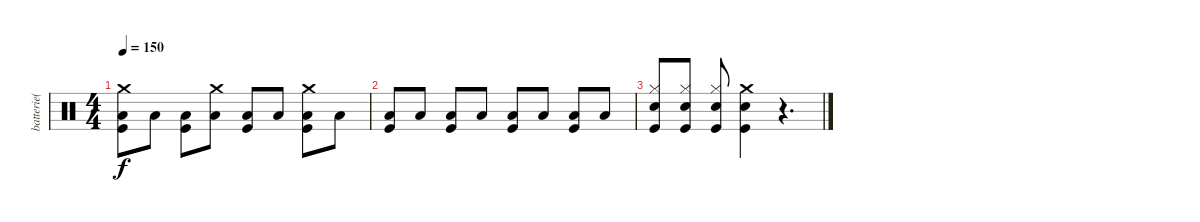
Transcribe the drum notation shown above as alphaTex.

\track ("batterie(  Mark Cain )" "batterie( ") {instrument percussion}
\staff {score}
\articulation defaults
\ts (4 4)
\tempo 150
\clef neutral
\ks c
("Crash medium (hit)" "Low Floor Tom (hit)" "Kick (hit)").8{dy f} "Low Floor Tom (hit)".8 ("Low Floor Tom (hit)" "Kick (hit)").8 ("Crash medium (hit)" "Low Floor Tom (hit)").8 ("Low Floor Tom (hit)" "Kick (hit)").8 "Low Floor Tom (hit)".8 ("Crash medium (hit)" "Low Floor Tom (hit)" "Kick (hit)").8 "Low Floor Tom (hit)".8 |
("Low Floor Tom (hit)" "Kick (hit)").8 "Low Floor Tom (hit)".8 ("Low Floor Tom (hit)" "Kick (hit)").8 "Low Floor Tom (hit)".8 ("Low Floor Tom (hit)" "Kick (hit)").8 "Low Floor Tom (hit)".8 ("Low Floor Tom (hit)" "Kick (hit)").8 "Low Floor Tom (hit)".8 |
("Hi-Hat (closed)" "Snare (hit) 2" "Kick (hit)").8 ("Hi-Hat (closed)" "Snare (hit) 2" "Kick (hit)").8 ("Hi-Hat (closed)" "Snare (hit) 2" "Kick (hit)").8 ("Crash medium (hit)" "Snare (hit) 2" "Kick (hit)").4 r.4{d}
